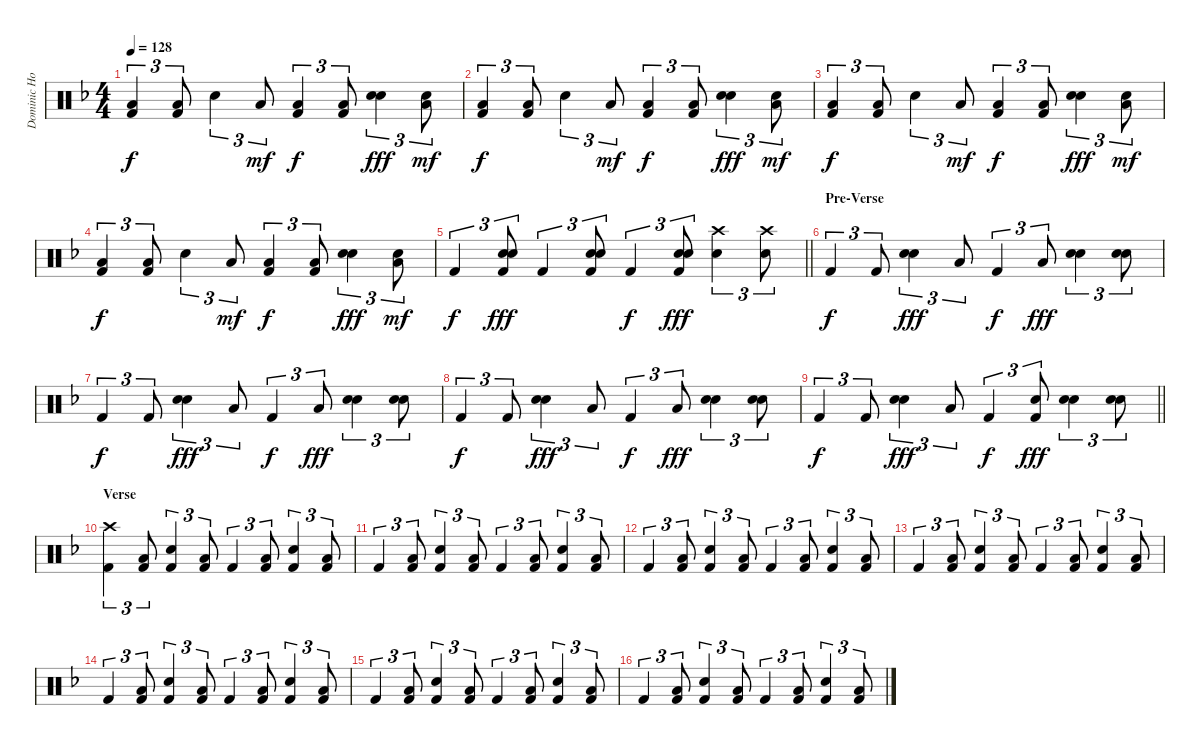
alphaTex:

\track ("Dominic Howard Drums" "Dominic Ho") {instrument percussion}
\staff {score}
\articulation defaults
\ts (4 4)
\tempo 128
\clef neutral
\ks dminor
("Low Floor Tom (hit)" "Kick (hit) 2").4{tu (3 2) dy f} ("Low Floor Tom (hit)" "Kick (hit) 2").8{tu (3 2)} "Snare (hit) 2".4{tu (3 2)} "Low Tom (hit)".8{tu (3 2) dy mf} ("Low Floor Tom (hit)" "Kick (hit) 2").4{tu (3 2) dy f} ("Low Floor Tom (hit)" "Kick (hit) 2").8{tu (3 2)} ("Hand Clap (hit)" "Snare (hit) 2").4{tu (3 2) dy fff} ("Hand Clap (hit)" "Low Tom (hit)").8{tu (3 2) dy mf} |
("Low Floor Tom (hit)" "Kick (hit) 2").4{tu (3 2) dy f} ("Low Floor Tom (hit)" "Kick (hit) 2").8{tu (3 2)} "Snare (hit) 2".4{tu (3 2)} "Low Tom (hit)".8{tu (3 2) dy mf} ("Low Floor Tom (hit)" "Kick (hit) 2").4{tu (3 2) dy f} ("Low Floor Tom (hit)" "Kick (hit) 2").8{tu (3 2)} ("Hand Clap (hit)" "Snare (hit) 2").4{tu (3 2) dy fff} ("Hand Clap (hit)" "Low Tom (hit)").8{tu (3 2) dy mf} |
("Low Floor Tom (hit)" "Kick (hit) 2").4{tu (3 2) dy f} ("Low Floor Tom (hit)" "Kick (hit) 2").8{tu (3 2)} "Snare (hit) 2".4{tu (3 2)} "Low Tom (hit)".8{tu (3 2) dy mf} ("Low Floor Tom (hit)" "Kick (hit) 2").4{tu (3 2) dy f} ("Low Floor Tom (hit)" "Kick (hit) 2").8{tu (3 2)} ("Hand Clap (hit)" "Snare (hit) 2").4{tu (3 2) dy fff} ("Hand Clap (hit)" "Low Tom (hit)").8{tu (3 2) dy mf} |
("Low Floor Tom (hit)" "Kick (hit) 2").4{tu (3 2) dy f} ("Low Floor Tom (hit)" "Kick (hit) 2").8{tu (3 2)} "Snare (hit) 2".4{tu (3 2)} "Low Tom (hit)".8{tu (3 2) dy mf} ("Low Floor Tom (hit)" "Kick (hit) 2").4{tu (3 2) dy f} ("Low Floor Tom (hit)" "Kick (hit) 2").8{tu (3 2)} ("Hand Clap (hit)" "Snare (hit) 2").4{tu (3 2) dy fff} ("Hand Clap (hit)" "Low Tom (hit)").8{tu (3 2) dy mf} |
\barLineRight lightlight "Kick (hit) 2".4{tu (3 2) dy f}
("Electric Snare (hit)" "Snare (hit) 2" "Kick (hit) 2").8{tu (3 2) dy fff} "Kick (hit) 2".4{tu (3 2)} ("Electric Snare (hit)" "Snare (hit) 2" "Kick (hit) 2").8{tu (3 2)} "Kick (hit) 2".4{tu (3 2) dy f} ("Electric Snare (hit)" "Snare (hit) 2" "Kick (hit) 2").8{tu (3 2) dy fff} ("Crash high (hit)" "Snare (hit) 2").4{tu (3 2)} ("Crash high (hit)" "Snare (hit) 2").8{tu (3 2)} |
\section ("" "Pre-Verse")
"Kick (hit) 2".4{tu (3 2) dy f} "Kick (hit) 2".8{tu (3 2)} ("Electric Snare (hit)" "Snare (hit) 2").4{tu (3 2) dy fff} "Low Floor Tom (hit)".8{tu (3 2)} "Kick (hit) 2".4{tu (3 2) dy f} "Low Floor Tom (hit)".8{tu (3 2) dy fff} ("Hand Clap (hit)" "Snare (hit) 2").4{tu (3 2)} ("Hand Clap (hit)" "Snare (hit) 2").8{tu (3 2)} |
"Kick (hit) 2".4{tu (3 2) dy f} "Kick (hit) 2".8{tu (3 2)} ("Electric Snare (hit)" "Snare (hit) 2").4{tu (3 2) dy fff} "Low Floor Tom (hit)".8{tu (3 2)} "Kick (hit) 2".4{tu (3 2) dy f} "Low Floor Tom (hit)".8{tu (3 2) dy fff} ("Hand Clap (hit)" "Snare (hit) 2").4{tu (3 2)} ("Hand Clap (hit)" "Snare (hit) 2").8{tu (3 2)} |
"Kick (hit) 2".4{tu (3 2) dy f} "Kick (hit) 2".8{tu (3 2)} ("Electric Snare (hit)" "Snare (hit) 2").4{tu (3 2) dy fff} "Low Floor Tom (hit)".8{tu (3 2)} "Kick (hit) 2".4{tu (3 2) dy f} "Low Floor Tom (hit)".8{tu (3 2) dy fff} ("Hand Clap (hit)" "Snare (hit) 2").4{tu (3 2)} ("Hand Clap (hit)" "Snare (hit) 2").8{tu (3 2)} |
\barLineRight lightlight "Kick (hit) 2".4{tu (3 2) dy f} "Kick (hit) 2".8{tu (3 2)}
("Electric Snare (hit)" "Snare (hit) 2").4{tu (3 2) dy fff} "Low Floor Tom (hit)".8{tu (3 2)} "Kick (hit) 2".4{tu (3 2) dy f} ("Snare (hit) 2" "Kick (hit) 2").8{tu (3 2) dy fff} ("Hand Clap (hit)" "Snare (hit) 2").4{tu (3 2)} ("Hand Clap (hit)" "Snare (hit) 2").8{tu (3 2)} |
\section ("" "Verse")
("Crash high (hit)" "Kick (hit) 2").4{tu (3 2)} ("Low Floor Tom (hit)" "Kick (hit) 2").8{tu (3 2)} ("Snare (hit) 2" "Kick (hit) 2").4{tu (3 2)} ("Low Floor Tom (hit)" "Kick (hit) 2").8{tu (3 2)} "Kick (hit) 2".4{tu (3 2)} ("Low Floor Tom (hit)" "Kick (hit) 2").8{tu (3 2)} ("Snare (hit) 2" "Kick (hit) 2").4{tu (3 2)} ("Low Floor Tom (hit)" "Kick (hit) 2").8{tu (3 2)} |
"Kick (hit) 2".4{tu (3 2)} ("Low Floor Tom (hit)" "Kick (hit) 2").8{tu (3 2)} ("Snare (hit) 2" "Kick (hit) 2").4{tu (3 2)} ("Low Floor Tom (hit)" "Kick (hit) 2").8{tu (3 2)} "Kick (hit) 2".4{tu (3 2)} ("Low Floor Tom (hit)" "Kick (hit) 2").8{tu (3 2)} ("Snare (hit) 2" "Kick (hit) 2").4{tu (3 2)} ("Low Floor Tom (hit)" "Kick (hit) 2").8{tu (3 2)} |
"Kick (hit) 2".4{tu (3 2)} ("Low Floor Tom (hit)" "Kick (hit) 2").8{tu (3 2)} ("Snare (hit) 2" "Kick (hit) 2").4{tu (3 2)} ("Low Floor Tom (hit)" "Kick (hit) 2").8{tu (3 2)} "Kick (hit) 2".4{tu (3 2)} ("Low Floor Tom (hit)" "Kick (hit) 2").8{tu (3 2)} ("Snare (hit) 2" "Kick (hit) 2").4{tu (3 2)} ("Low Floor Tom (hit)" "Kick (hit) 2").8{tu (3 2)} |
"Kick (hit) 2".4{tu (3 2)} ("Low Floor Tom (hit)" "Kick (hit) 2").8{tu (3 2)} ("Snare (hit) 2" "Kick (hit) 2").4{tu (3 2)} ("Low Floor Tom (hit)" "Kick (hit) 2").8{tu (3 2)} "Kick (hit) 2".4{tu (3 2)} ("Low Floor Tom (hit)" "Kick (hit) 2").8{tu (3 2)} ("Snare (hit) 2" "Kick (hit) 2").4{tu (3 2)} ("Low Floor Tom (hit)" "Kick (hit) 2").8{tu (3 2)} |
"Kick (hit) 2".4{tu (3 2)} ("Low Floor Tom (hit)" "Kick (hit) 2").8{tu (3 2)} ("Snare (hit) 2" "Kick (hit) 2").4{tu (3 2)} ("Low Floor Tom (hit)" "Kick (hit) 2").8{tu (3 2)} "Kick (hit) 2".4{tu (3 2)} ("Low Floor Tom (hit)" "Kick (hit) 2").8{tu (3 2)} ("Snare (hit) 2" "Kick (hit) 2").4{tu (3 2)} ("Low Floor Tom (hit)" "Kick (hit) 2").8{tu (3 2)} |
"Kick (hit) 2".4{tu (3 2)} ("Low Floor Tom (hit)" "Kick (hit) 2").8{tu (3 2)} ("Snare (hit) 2" "Kick (hit) 2").4{tu (3 2)} ("Low Floor Tom (hit)" "Kick (hit) 2").8{tu (3 2)} "Kick (hit) 2".4{tu (3 2)} ("Low Floor Tom (hit)" "Kick (hit) 2").8{tu (3 2)} ("Snare (hit) 2" "Kick (hit) 2").4{tu (3 2)} ("Low Floor Tom (hit)" "Kick (hit) 2").8{tu (3 2)} |
"Kick (hit) 2".4{tu (3 2)} ("Low Floor Tom (hit)" "Kick (hit) 2").8{tu (3 2)} ("Snare (hit) 2" "Kick (hit) 2").4{tu (3 2)} ("Low Floor Tom (hit)" "Kick (hit) 2").8{tu (3 2)} "Kick (hit) 2".4{tu (3 2)} ("Low Floor Tom (hit)" "Kick (hit) 2").8{tu (3 2)} ("Snare (hit) 2" "Kick (hit) 2").4{tu (3 2)} ("Low Floor Tom (hit)" "Kick (hit) 2").8{tu (3 2)}
